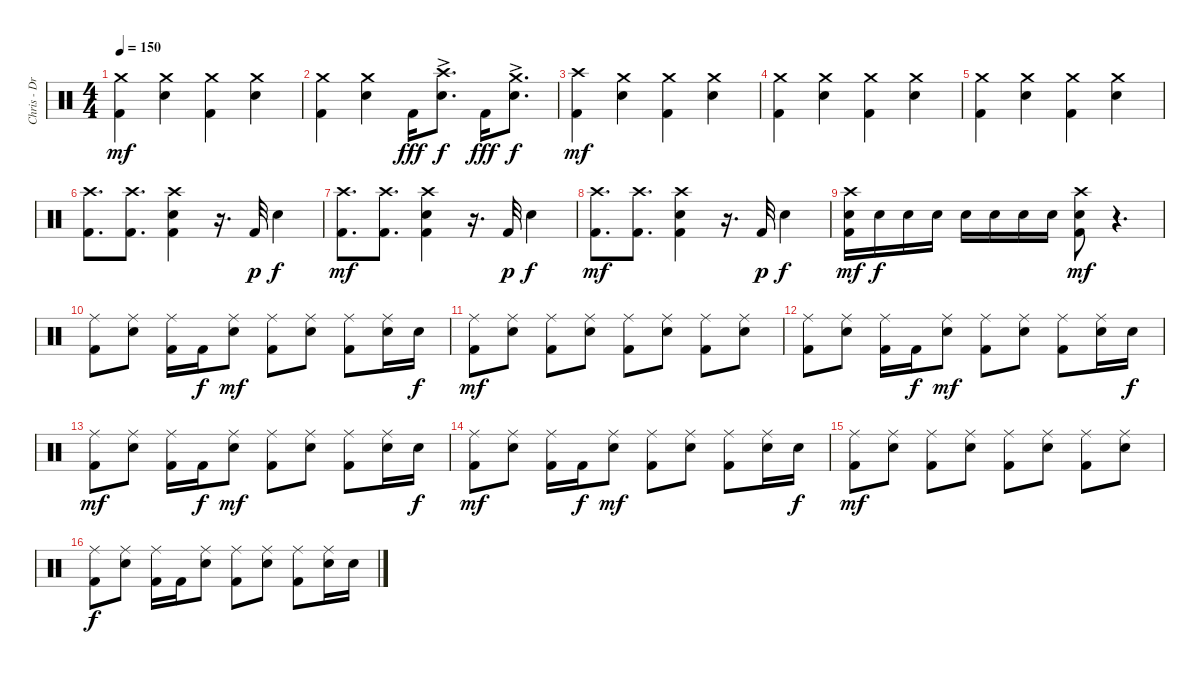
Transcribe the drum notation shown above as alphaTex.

\track ("Chris - Drums" "Chris - Dr") {instrument percussion}
\staff {score}
\articulation defaults
\ts (4 4)
\tempo 150
\clef neutral
\ks c
("Crash medium (hit)" "Kick (hit) 2").4{dy mf} ("Crash medium (hit)" "Electric Snare (hit)").4 ("Crash medium (hit)" "Kick (hit) 2").4 ("Crash medium (hit)" "Electric Snare (hit)").4 |
("Crash medium (hit)" "Kick (hit) 2").4 ("Crash medium (hit)" "Electric Snare (hit)").4 "Kick (hit) 2".16{dy fff} ("Crash high (hit)" "Electric Snare (hit)"{ac}).8{d dy f} "Kick (hit) 2".16{dy fff} ("Crash medium (hit)" "Electric Snare (hit)"{ac}).8{d dy f} |
("Crash high (hit)" "Kick (hit) 2").4{dy mf} ("Crash medium (hit)" "Electric Snare (hit)").4 ("Crash medium (hit)" "Kick (hit) 2").4 ("Crash medium (hit)" "Electric Snare (hit)").4 |
("Crash medium (hit)" "Kick (hit) 2").4 ("Crash medium (hit)" "Electric Snare (hit)").4 ("Crash medium (hit)" "Kick (hit) 2").4 ("Crash medium (hit)" "Electric Snare (hit)").4 |
("Crash medium (hit)" "Kick (hit) 2").4 ("Crash medium (hit)" "Electric Snare (hit)").4 ("Crash medium (hit)" "Kick (hit) 2").4 ("Crash medium (hit)" "Electric Snare (hit)").4 |
("Crash high (hit)" "Kick (hit) 2").8{d} ("Crash high (hit)" "Kick (hit) 2").8{d} ("Crash high (hit)" "Electric Snare (hit)" "Kick (hit) 2").4 r.16{d} "Kick (hit) 2".32{dy p} "Electric Snare (hit)".4{dy f} |
("Crash high (hit)" "Kick (hit) 2").8{d dy mf} ("Crash high (hit)" "Kick (hit) 2").8{d} ("Crash high (hit)" "Electric Snare (hit)" "Kick (hit) 2").4 r.16{d} "Kick (hit) 2".32{dy p} "Electric Snare (hit)".4{dy f} |
("Crash high (hit)" "Kick (hit) 2").8{d dy mf} ("Crash high (hit)" "Kick (hit) 2").8{d} ("Crash high (hit)" "Electric Snare (hit)" "Kick (hit) 2").4 r.16{d} "Kick (hit) 2".32{dy p} "Electric Snare (hit)".4{dy f} |
("Crash high (hit)" "Electric Snare (hit)" "Kick (hit) 2").16{dy mf} "Electric Snare (hit)".16{dy f} "Electric Snare (hit)".16 "Electric Snare (hit)".16 "Electric Snare (hit)".16 "Electric Snare (hit)".16 "Electric Snare (hit)".16 "Electric Snare (hit)".16 ("Crash high (hit)" "Electric Snare (hit)" "Kick (hit) 2").8{dy mf} r.4{d} |
("Ride (middle)" "Kick (hit) 2").8 ("Ride (middle)" "Electric Snare (hit)").8 ("Ride (middle)" "Kick (hit) 2").16 "Kick (hit) 2".16{dy f} ("Ride (middle)" "Electric Snare (hit)").8{dy mf} ("Ride (middle)" "Kick (hit) 2").8 ("Ride (middle)" "Electric Snare (hit)").8 ("Ride (middle)" "Kick (hit) 2").8 ("Ride (middle)" "Electric Snare (hit)").16 "Electric Snare (hit)".16{dy f} |
("Ride (middle)" "Kick (hit) 2").8{dy mf} ("Ride (middle)" "Electric Snare (hit)").8 ("Ride (middle)" "Kick (hit) 2").8 ("Ride (middle)" "Electric Snare (hit)").8 ("Ride (middle)" "Kick (hit) 2").8 ("Ride (middle)" "Electric Snare (hit)").8 ("Ride (middle)" "Kick (hit) 2").8 ("Ride (middle)" "Electric Snare (hit)").8 |
("Ride (middle)" "Kick (hit) 2").8 ("Ride (middle)" "Electric Snare (hit)").8 ("Ride (middle)" "Kick (hit) 2").16 "Kick (hit) 2".16{dy f} ("Ride (middle)" "Electric Snare (hit)").8{dy mf} ("Ride (middle)" "Kick (hit) 2").8 ("Ride (middle)" "Electric Snare (hit)").8 ("Ride (middle)" "Kick (hit) 2").8 ("Ride (middle)" "Electric Snare (hit)").16 "Electric Snare (hit)".16{dy f} |
("Ride (middle)" "Kick (hit) 2").8{dy mf} ("Ride (middle)" "Electric Snare (hit)").8 ("Ride (middle)" "Kick (hit) 2").16 "Kick (hit) 2".16{dy f} ("Ride (middle)" "Electric Snare (hit)").8{dy mf} ("Ride (middle)" "Kick (hit) 2").8 ("Ride (middle)" "Electric Snare (hit)").8 ("Ride (middle)" "Kick (hit) 2").8 ("Ride (middle)" "Electric Snare (hit)").16 "Electric Snare (hit)".16{dy f} |
("Ride (middle)" "Kick (hit) 2").8{dy mf} ("Ride (middle)" "Electric Snare (hit)").8 ("Ride (middle)" "Kick (hit) 2").16 "Kick (hit) 2".16{dy f} ("Ride (middle)" "Electric Snare (hit)").8{dy mf} ("Ride (middle)" "Kick (hit) 2").8 ("Ride (middle)" "Electric Snare (hit)").8 ("Ride (middle)" "Kick (hit) 2").8 ("Ride (middle)" "Electric Snare (hit)").16 "Electric Snare (hit)".16{dy f} |
("Ride (middle)" "Kick (hit) 2").8{dy mf} ("Ride (middle)" "Electric Snare (hit)").8 ("Ride (middle)" "Kick (hit) 2").8 ("Ride (middle)" "Electric Snare (hit)").8 ("Ride (middle)" "Kick (hit) 2").8 ("Ride (middle)" "Electric Snare (hit)").8 ("Ride (middle)" "Kick (hit) 2").8 ("Ride (middle)" "Electric Snare (hit)").8 |
("Ride (middle)" "Kick (hit) 2").8{dy f} ("Ride (middle)" "Electric Snare (hit)").8 ("Ride (middle)" "Kick (hit) 2").16 "Kick (hit) 2".16 ("Ride (middle)" "Electric Snare (hit)").8 ("Ride (middle)" "Kick (hit) 2").8 ("Ride (middle)" "Electric Snare (hit)").8 ("Ride (middle)" "Kick (hit) 2").8 ("Ride (middle)" "Electric Snare (hit)").16 "Electric Snare (hit)".16
